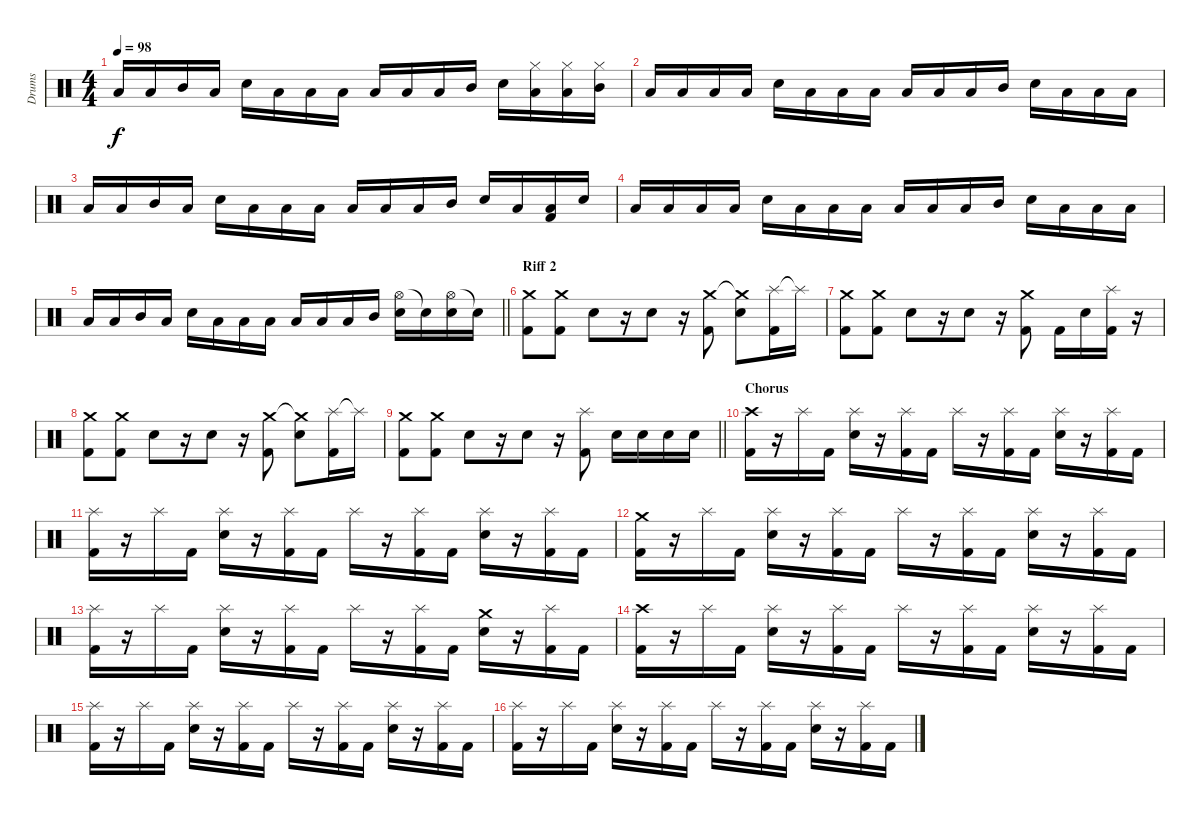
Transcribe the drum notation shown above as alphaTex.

\track ("Drums" "Drums") {instrument percussion}
\staff {score}
\articulation defaults
\ts (4 4)
\tempo 98
\clef neutral
\ks c "Low Floor Tom (hit)".16{dy f} "Low Floor Tom (hit)".16 "Mid Tom (hit)".16 "Low Floor Tom (hit)".16 "Electric Snare (hit)".16 "Low Floor Tom (hit)".16 "Low Floor Tom (hit)".16 "Low Floor Tom (hit)".16 "Low Floor Tom (hit)".16 "Low Tom (hit)".16 "Low Floor Tom (hit)".16 "Mid Tom (hit)".16 "Electric Snare (hit)".16
("Hi-Hat (closed)" "Low Floor Tom (hit)").16 ("Hi-Hat (closed)" "Low Floor Tom (hit)").16 ("Hi-Hat (closed)" "Mid Tom (hit)").16 |
"Low Floor Tom (hit)".16 "Low Floor Tom (hit)".16 "Low Floor Tom (hit)".16 "Low Floor Tom (hit)".16 "Electric Snare (hit)".16 "Low Floor Tom (hit)".16 "Low Floor Tom (hit)".16 "Low Floor Tom (hit)".16 "Low Floor Tom (hit)".16 "Low Tom (hit)".16 "Low Floor Tom (hit)".16 "Mid Tom (hit)".16 "Electric Snare (hit)".16 "Low Floor Tom (hit)".16 "Low Floor Tom (hit)".16 "Low Floor Tom (hit)".16 |
"Low Floor Tom (hit)".16 "Low Floor Tom (hit)".16 "Mid Tom (hit)".16 "Low Floor Tom (hit)".16 "Electric Snare (hit)".16 "Low Floor Tom (hit)".16 "Low Floor Tom (hit)".16 "Low Floor Tom (hit)".16 "Low Floor Tom (hit)".16 "Low Tom (hit)".16 "Low Floor Tom (hit)".16 "Mid Tom (hit)".16 "Electric Snare (hit)".16 "Low Floor Tom (hit)".16 ("Low Floor Tom (hit)" "Kick (hit) 2").16 "Electric Snare (hit)".16 |
"Low Floor Tom (hit)".16 "Low Floor Tom (hit)".16 "Low Floor Tom (hit)".16 "Low Floor Tom (hit)".16 "Electric Snare (hit)".16 "Low Floor Tom (hit)".16 "Low Floor Tom (hit)".16 "Low Floor Tom (hit)".16 "Low Floor Tom (hit)".16 "Low Tom (hit)".16 "Low Floor Tom (hit)".16 "Mid Tom (hit)".16 "Electric Snare (hit)".16 "Low Floor Tom (hit)".16 "Low Floor Tom (hit)".16 "Low Floor Tom (hit)".16 |
\barLineRight lightlight "Low Floor Tom (hit)".16 "Low Floor Tom (hit)".16 "Mid Tom (hit)".16 "Low Floor Tom (hit)".16 "Electric Snare (hit)".16 "Low Floor Tom (hit)".16 "Low Floor Tom (hit)".16 "Low Floor Tom (hit)".16 "Low Floor Tom (hit)".16 "Low Tom (hit)".16 "Low Floor Tom (hit)".16 "Mid Tom (hit)".16
("Hi-Hat (open)" "Electric Snare (hit)").16 "Snare (hit)"{t}.16 ("Hi-Hat (open)" "Electric Snare (hit)").16 "Snare (hit)"{t}.16 |
\section ("" "Riff 2")
("Crash medium (hit)" "Kick (hit) 2").8 ("Crash medium (hit)" "Kick (hit) 2").8 "Electric Snare (hit)".8 r.16 "Electric Snare (hit)".8 r.16 ("Crash medium (hit)" "Kick (hit) 2").8 ("Crash medium (hit)"{t} "Electric Snare (hit)").8 ("Splash (hit)" "Kick (hit) 2").16 "Splash (hit)"{t}.16 |
("Crash medium (hit)" "Kick (hit) 2").8 ("Crash medium (hit)" "Kick (hit) 2").8 "Electric Snare (hit)".8 r.16 "Electric Snare (hit)".8 r.16 ("Crash medium (hit)" "Kick (hit) 2").8 "Kick (hit) 2".16 "Electric Snare (hit)".16 ("Splash (hit)" "Kick (hit) 2").16 r.16 |
("Crash medium (hit)" "Kick (hit) 2").8 ("Crash medium (hit)" "Kick (hit) 2").8 "Electric Snare (hit)".8 r.16 "Electric Snare (hit)".8 r.16 ("Crash medium (hit)" "Kick (hit) 2").8 ("Crash medium (hit)"{t} "Electric Snare (hit)").8 ("Splash (hit)" "Kick (hit) 2").16 "Splash (hit)"{t}.16 |
\barLineRight lightlight
("Crash medium (hit)" "Kick (hit) 2").8 ("Crash medium (hit)" "Kick (hit) 2").8 "Electric Snare (hit)".8 r.16 "Electric Snare (hit)".8 r.16 ("Splash (hit)" "Kick (hit) 2").8 "Electric Snare (hit)".16 "Electric Snare (hit)".16 "Electric Snare (hit)".16 "Electric Snare (hit)".16 |
\section ("" "Chorus")
("Crash high (hit)" "Kick (hit) 2").16 r.16 "Splash (hit)".16 "Kick (hit) 2".16 ("Splash (hit)" "Electric Snare (hit)").16 r.16 ("Splash (hit)" "Kick (hit) 2").16 "Kick (hit) 2".16 "Splash (hit)".16 r.16 ("Splash (hit)" "Kick (hit) 2").16 "Kick (hit) 2".16 ("Splash (hit)" "Electric Snare (hit)").16 r.16 ("Splash (hit)" "Kick (hit) 2").16 "Kick (hit) 2".16 |
("Splash (hit)" "Kick (hit) 2").16 r.16 "Splash (hit)".16 "Kick (hit) 2".16 ("Splash (hit)" "Electric Snare (hit)").16 r.16 ("Splash (hit)" "Kick (hit) 2").16 "Kick (hit) 2".16 "Splash (hit)".16 r.16 ("Splash (hit)" "Kick (hit) 2").16 "Kick (hit) 2".16 ("Splash (hit)" "Electric Snare (hit)").16 r.16 ("Splash (hit)" "Kick (hit) 2").16 "Kick (hit) 2".16 |
("Crash medium (hit)" "Kick (hit) 2").16 r.16 "Splash (hit)".16 "Kick (hit) 2".16 ("Splash (hit)" "Electric Snare (hit)").16 r.16 ("Splash (hit)" "Kick (hit) 2").16 "Kick (hit) 2".16 "Splash (hit)".16 r.16 ("Splash (hit)" "Kick (hit) 2").16 "Kick (hit) 2".16 ("Splash (hit)" "Electric Snare (hit)").16 r.16 ("Splash (hit)" "Kick (hit) 2").16 "Kick (hit) 2".16 |
("Splash (hit)" "Kick (hit) 2").16 r.16 "Splash (hit)".16 "Kick (hit) 2".16 ("Splash (hit)" "Electric Snare (hit)").16 r.16 ("Splash (hit)" "Kick (hit) 2").16 "Kick (hit) 2".16 "Splash (hit)".16 r.16 ("Splash (hit)" "Kick (hit) 2").16 "Kick (hit) 2".16 ("Crash medium (hit)" "Electric Snare (hit)").16 r.16 ("Splash (hit)" "Kick (hit) 2").16 "Kick (hit) 2".16 |
("Crash high (hit)" "Kick (hit) 2").16 r.16 "Splash (hit)".16 "Kick (hit) 2".16 ("Splash (hit)" "Electric Snare (hit)").16 r.16 ("Splash (hit)" "Kick (hit) 2").16 "Kick (hit) 2".16 "Splash (hit)".16 r.16 ("Splash (hit)" "Kick (hit) 2").16 "Kick (hit) 2".16 ("Splash (hit)" "Electric Snare (hit)").16 r.16 ("Splash (hit)" "Kick (hit) 2").16 "Kick (hit) 2".16 |
("Splash (hit)" "Kick (hit) 2").16 r.16 "Splash (hit)".16 "Kick (hit) 2".16 ("Splash (hit)" "Electric Snare (hit)").16 r.16 ("Splash (hit)" "Kick (hit) 2").16 "Kick (hit) 2".16 "Splash (hit)".16 r.16 ("Splash (hit)" "Kick (hit) 2").16 "Kick (hit) 2".16 ("Splash (hit)" "Electric Snare (hit)").16 r.16 ("Splash (hit)" "Kick (hit) 2").16 "Kick (hit) 2".16 |
("Splash (hit)" "Kick (hit) 2").16 r.16 "Splash (hit)".16 "Kick (hit) 2".16 ("Splash (hit)" "Electric Snare (hit)").16 r.16 ("Splash (hit)" "Kick (hit) 2").16 "Kick (hit) 2".16 "Splash (hit)".16 r.16 ("Splash (hit)" "Kick (hit) 2").16 "Kick (hit) 2".16 ("Splash (hit)" "Electric Snare (hit)").16 r.16 ("Splash (hit)" "Kick (hit) 2").16 "Kick (hit) 2".16
